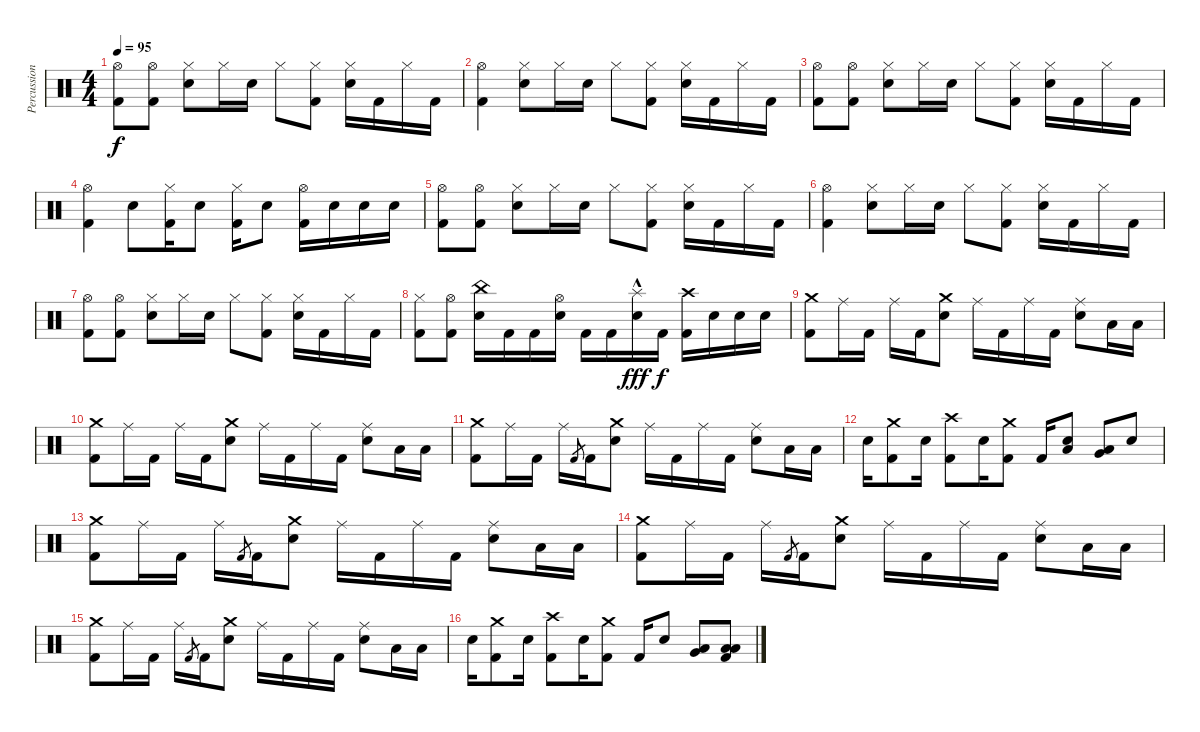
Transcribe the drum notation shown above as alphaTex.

\track ("Percussions" "Percussion") {instrument percussion}
\staff {score}
\articulation defaults
\ts (4 4)
\tempo 95
\clef neutral
\ks c
("Hi-Hat (open)" "Kick (hit) 2").8{dy f} ("Hi-Hat (open)" "Kick (hit) 2").8 ("Hi-Hat (closed)" "Electric Snare (hit)").8 "Hi-Hat (closed)".16 "Electric Snare (hit)".16 "Hi-Hat (closed)".8 ("Hi-Hat (closed)" "Kick (hit) 2").8 ("Hi-Hat (closed)" "Electric Snare (hit)").16 "Kick (hit) 2".16 "Hi-Hat (closed)".16 "Kick (hit) 2".16 |
("Hi-Hat (open)" "Kick (hit) 2").4 ("Hi-Hat (closed)" "Electric Snare (hit)").8 "Hi-Hat (closed)".16 "Electric Snare (hit)".16 "Hi-Hat (closed)".8 ("Hi-Hat (closed)" "Kick (hit) 2").8 ("Hi-Hat (closed)" "Electric Snare (hit)").16 "Kick (hit) 2".16 "Hi-Hat (closed)".16 "Kick (hit) 2".16 |
("Hi-Hat (open)" "Kick (hit) 2").8 ("Hi-Hat (open)" "Kick (hit) 2").8 ("Hi-Hat (closed)" "Electric Snare (hit)").8 "Hi-Hat (closed)".16 "Electric Snare (hit)".16 "Hi-Hat (closed)".8 ("Hi-Hat (closed)" "Kick (hit) 2").8 ("Hi-Hat (closed)" "Electric Snare (hit)").16 "Kick (hit) 2".16 "Hi-Hat (closed)".16 "Kick (hit) 2".16 |
("Hi-Hat (open)" "Kick (hit) 2").4 "Electric Snare (hit)".8 ("Hi-Hat (closed)" "Kick (hit) 2").16 "Electric Snare (hit)".8 ("Hi-Hat (closed)" "Kick (hit) 2").16 "Electric Snare (hit)".8 ("Hi-Hat (open)" "Kick (hit) 2").16 "Electric Snare (hit)".16 "Electric Snare (hit)".16 "Electric Snare (hit)".16 |
("Hi-Hat (open)" "Kick (hit) 2").8 ("Hi-Hat (open)" "Kick (hit) 2").8 ("Hi-Hat (closed)" "Electric Snare (hit)").8 "Hi-Hat (closed)".16 "Electric Snare (hit)".16 "Hi-Hat (closed)".8 ("Hi-Hat (closed)" "Kick (hit) 2").8 ("Hi-Hat (closed)" "Electric Snare (hit)").16 "Kick (hit) 2".16 "Hi-Hat (closed)".16 "Kick (hit) 2".16 |
("Hi-Hat (open)" "Kick (hit) 2").4 ("Hi-Hat (closed)" "Electric Snare (hit)").8 "Hi-Hat (closed)".16 "Electric Snare (hit)".16 "Hi-Hat (closed)".8 ("Hi-Hat (closed)" "Kick (hit) 2").8 ("Hi-Hat (closed)" "Electric Snare (hit)").16 "Kick (hit) 2".16 "Hi-Hat (closed)".16 "Kick (hit) 2".16 |
("Hi-Hat (open)" "Kick (hit) 2").8 ("Hi-Hat (open)" "Kick (hit) 2").8 ("Hi-Hat (closed)" "Electric Snare (hit)").8 "Hi-Hat (closed)".16 "Electric Snare (hit)".16 "Hi-Hat (closed)".8 ("Hi-Hat (closed)" "Kick (hit) 2").8 ("Hi-Hat (closed)" "Electric Snare (hit)").16 "Kick (hit) 2".16 "Hi-Hat (closed)".16 "Kick (hit) 2".16 |
("Hi-Hat (closed)" "Kick (hit) 2").8 ("Hi-Hat (open)" "Kick (hit) 2").8 ("China (hit)" "Electric Snare (hit)").16 "Kick (hit) 2".16 "Kick (hit) 2".16 ("Hi-Hat (open)" "Electric Snare (hit)").16 "Kick (hit) 2".16 "Kick (hit) 2".16 ("Splash (hit)"{hac} "Electric Snare (hit)").16{dy fff} "Kick (hit) 2".16{dy f} ("Crash high (hit)" "Kick (hit) 2").16 "Electric Snare (hit)".16 "Electric Snare (hit)".16 "Electric Snare (hit)".16 |
("Crash medium (hit)" "Kick (hit) 2").8 "Ride (middle)".16 "Kick (hit) 2".16 "Ride (middle)".16 "Kick (hit) 2".16 ("Crash medium (hit)" "Electric Snare (hit)").8 "Ride (middle)".16 "Kick (hit) 2".16 "Ride (middle)".16 "Kick (hit) 2".16 ("Ride (middle)" "Electric Snare (hit)").8 "Low Tom (hit)".16 "Low Tom (hit)".16 |
("Crash medium (hit)" "Kick (hit) 2").8 "Ride (middle)".16 "Kick (hit) 2".16 "Ride (middle)".16 "Kick (hit) 2".16 ("Crash medium (hit)" "Electric Snare (hit)").8 "Ride (middle)".16 "Kick (hit) 2".16 "Ride (middle)".16 "Kick (hit) 2".16 ("Ride (middle)" "Electric Snare (hit)").8 "Low Tom (hit)".16 "Low Tom (hit)".16 |
("Crash medium (hit)" "Kick (hit) 2").8 "Ride (middle)".16 "Kick (hit) 2".16 "Ride (middle)".16 "Kick (hit) 2".8{gr} "Kick (hit) 2".16 ("Crash medium (hit)" "Electric Snare (hit)").8 "Ride (middle)".16 "Kick (hit) 2".16 "Ride (middle)".16 "Kick (hit) 2".16 ("Ride (middle)" "Electric Snare (hit)").8 "Low Tom (hit)".16 "Low Tom (hit)".16 |
"Electric Snare (hit)".16 ("Crash medium (hit)" "Kick (hit) 2").8 "Electric Snare (hit)".16 ("Crash high (hit)" "Kick (hit) 2").8 "Electric Snare (hit)".16 ("Crash medium (hit)" "Kick (hit) 2").8 "Kick (hit) 2".16 ("Electric Snare (hit)" "Low Floor Tom (hit)").8 ("Very Low Tom (hit)" "Low Floor Tom (hit)").8 "Electric Snare (hit)".8 |
("Crash medium (hit)" "Kick (hit) 2").8 "Ride (middle)".16 "Kick (hit) 2".16 "Ride (middle)".16 "Kick (hit) 2".8{gr} "Kick (hit) 2".16 ("Crash medium (hit)" "Electric Snare (hit)").8 "Ride (middle)".16 "Kick (hit) 2".16 "Ride (middle)".16 "Kick (hit) 2".16 ("Ride (middle)" "Electric Snare (hit)").8 "Low Tom (hit)".16 "Low Tom (hit)".16 |
("Crash medium (hit)" "Kick (hit) 2").8 "Ride (middle)".16 "Kick (hit) 2".16 "Ride (middle)".16 "Kick (hit) 2".8{gr} "Kick (hit) 2".16 ("Crash medium (hit)" "Electric Snare (hit)").8 "Ride (middle)".16 "Kick (hit) 2".16 "Ride (middle)".16 "Kick (hit) 2".16 ("Ride (middle)" "Electric Snare (hit)").8 "Low Tom (hit)".16 "Low Tom (hit)".16 |
("Crash medium (hit)" "Kick (hit) 2").8 "Ride (middle)".16 "Kick (hit) 2".16 "Ride (middle)".16 "Kick (hit) 2".8{gr} "Kick (hit) 2".16 ("Crash medium (hit)" "Electric Snare (hit)").8 "Ride (middle)".16 "Kick (hit) 2".16 "Ride (middle)".16 "Kick (hit) 2".16 ("Ride (middle)" "Electric Snare (hit)").8 "Low Tom (hit)".16 "Low Tom (hit)".16 |
"Electric Snare (hit)".16 ("Crash medium (hit)" "Kick (hit) 2").8 "Electric Snare (hit)".16 ("Crash high (hit)" "Kick (hit) 2").8 "Electric Snare (hit)".16 ("Crash medium (hit)" "Kick (hit) 2").8 "Kick (hit) 2".16 "Electric Snare (hit)".8 ("Very Low Tom (hit)" "Low Floor Tom (hit)").8 ("Low Floor Tom (hit)" "Low Floor Tom (hit)" "Kick (hit) 2").8
